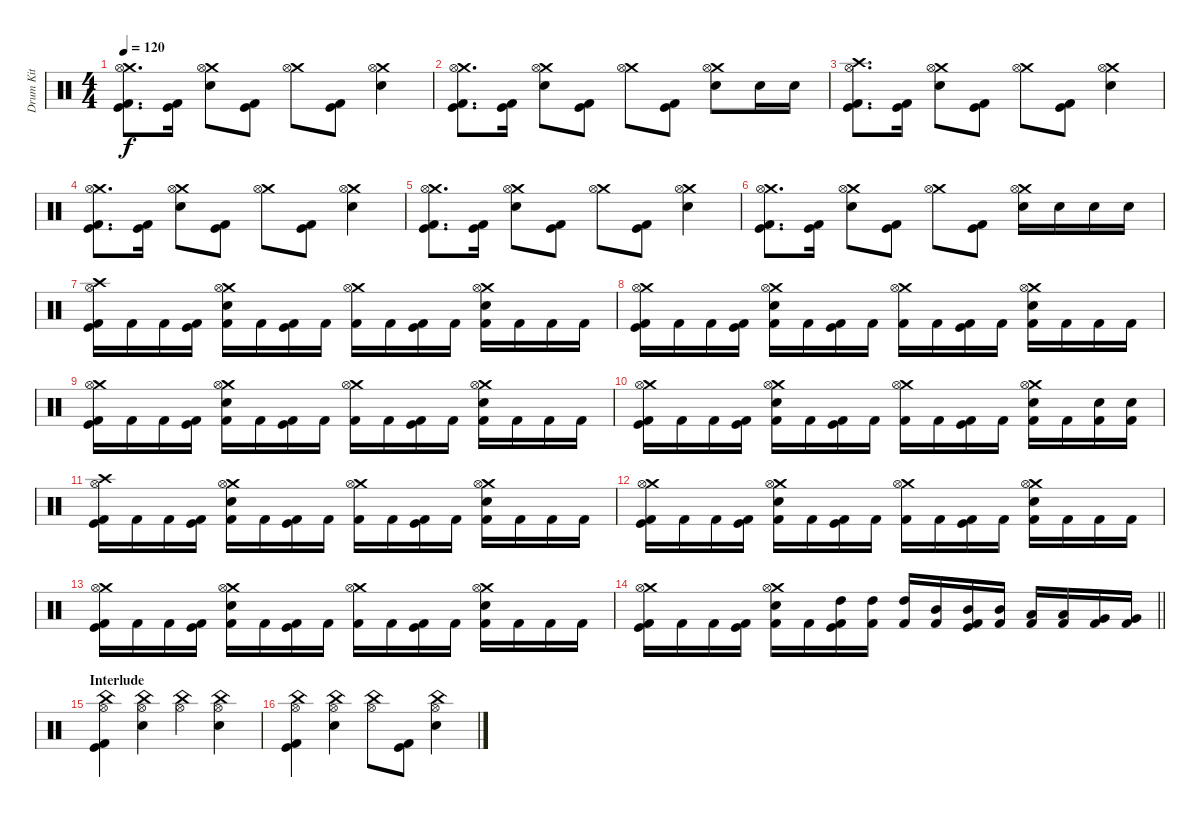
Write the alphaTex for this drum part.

\track ("Drum Kit" "Drum Kit") {instrument percussion}
\staff {score}
\articulation defaults
\ts (4 4)
\tempo 120
\clef neutral
\ks c
("Crash medium (hit)" "Hi-Hat (open)" "Kick (hit)" "Kick (hit) 2").8{d dy f} ("Kick (hit)" "Kick (hit) 2").16 ("Crash medium (hit)" "Hi-Hat (open)" "Electric Snare (hit)").8 ("Kick (hit)" "Kick (hit) 2").8 ("Crash medium (hit)" "Hi-Hat (open)").8 ("Kick (hit)" "Kick (hit) 2").8 ("Crash medium (hit)" "Hi-Hat (open)" "Electric Snare (hit)").4 |
("Crash medium (hit)" "Hi-Hat (open)" "Kick (hit)" "Kick (hit) 2").8{d} ("Kick (hit)" "Kick (hit) 2").16 ("Crash medium (hit)" "Hi-Hat (open)" "Electric Snare (hit)").8 ("Kick (hit)" "Kick (hit) 2").8 ("Crash medium (hit)" "Hi-Hat (open)").8 ("Kick (hit)" "Kick (hit) 2").8 ("Crash medium (hit)" "Hi-Hat (open)" "Electric Snare (hit)").8 "Electric Snare (hit)".16 "Electric Snare (hit)".16 |
("Crash high (hit)" "Hi-Hat (open)" "Kick (hit)" "Kick (hit) 2").8{d} ("Kick (hit)" "Kick (hit) 2").16 ("Crash medium (hit)" "Hi-Hat (open)" "Electric Snare (hit)").8 ("Kick (hit)" "Kick (hit) 2").8 ("Crash medium (hit)" "Hi-Hat (open)").8 ("Kick (hit)" "Kick (hit) 2").8 ("Crash medium (hit)" "Hi-Hat (open)" "Electric Snare (hit)").4 |
("Crash medium (hit)" "Hi-Hat (open)" "Kick (hit)" "Kick (hit) 2").8{d} ("Kick (hit)" "Kick (hit) 2").16 ("Crash medium (hit)" "Hi-Hat (open)" "Electric Snare (hit)").8 ("Kick (hit)" "Kick (hit) 2").8 ("Crash medium (hit)" "Hi-Hat (open)").8 ("Kick (hit)" "Kick (hit) 2").8 ("Crash medium (hit)" "Hi-Hat (open)" "Electric Snare (hit)").4 |
("Crash medium (hit)" "Hi-Hat (open)" "Kick (hit)" "Kick (hit) 2").8{d} ("Kick (hit)" "Kick (hit) 2").16 ("Crash medium (hit)" "Hi-Hat (open)" "Electric Snare (hit)").8 ("Kick (hit)" "Kick (hit) 2").8 ("Crash medium (hit)" "Hi-Hat (open)").8 ("Kick (hit)" "Kick (hit) 2").8 ("Crash medium (hit)" "Hi-Hat (open)" "Electric Snare (hit)").4 |
("Crash medium (hit)" "Hi-Hat (open)" "Kick (hit)" "Kick (hit) 2").8{d} ("Kick (hit)" "Kick (hit) 2").16 ("Crash medium (hit)" "Hi-Hat (open)" "Electric Snare (hit)").8 ("Kick (hit)" "Kick (hit) 2").8 ("Crash medium (hit)" "Hi-Hat (open)").8 ("Kick (hit)" "Kick (hit) 2").8 ("Crash medium (hit)" "Hi-Hat (open)" "Electric Snare (hit)").16 "Electric Snare (hit)".16 "Electric Snare (hit)".16 "Electric Snare (hit)".16 |
("Crash high (hit)" "Hi-Hat (open)" "Kick (hit)" "Kick (hit) 2").16 "Kick (hit) 2".16 "Kick (hit) 2".16 ("Kick (hit)" "Kick (hit) 2").16 ("Crash medium (hit)" "Hi-Hat (open)" "Electric Snare (hit)" "Kick (hit) 2").16 "Kick (hit) 2".16 ("Kick (hit)" "Kick (hit) 2").16 "Kick (hit) 2".16 ("Crash medium (hit)" "Hi-Hat (open)" "Kick (hit) 2").16 "Kick (hit) 2".16 ("Kick (hit)" "Kick (hit) 2").16 "Kick (hit) 2".16 ("Crash medium (hit)" "Hi-Hat (open)" "Electric Snare (hit)" "Kick (hit) 2").16 "Kick (hit) 2".16 "Kick (hit) 2".16 "Kick (hit) 2".16 |
("Crash medium (hit)" "Hi-Hat (open)" "Kick (hit)" "Kick (hit) 2").16 "Kick (hit) 2".16 "Kick (hit) 2".16 ("Kick (hit)" "Kick (hit) 2").16 ("Crash medium (hit)" "Hi-Hat (open)" "Electric Snare (hit)" "Kick (hit) 2").16 "Kick (hit) 2".16 ("Kick (hit)" "Kick (hit) 2").16 "Kick (hit) 2".16 ("Crash medium (hit)" "Hi-Hat (open)" "Kick (hit) 2").16 "Kick (hit) 2".16 ("Kick (hit)" "Kick (hit) 2").16 "Kick (hit) 2".16 ("Crash medium (hit)" "Hi-Hat (open)" "Electric Snare (hit)" "Kick (hit) 2").16 "Kick (hit) 2".16 "Kick (hit) 2".16 "Kick (hit) 2".16 |
("Crash medium (hit)" "Hi-Hat (open)" "Kick (hit)" "Kick (hit) 2").16 "Kick (hit) 2".16 "Kick (hit) 2".16 ("Kick (hit)" "Kick (hit) 2").16 ("Crash medium (hit)" "Hi-Hat (open)" "Electric Snare (hit)" "Kick (hit) 2").16 "Kick (hit) 2".16 ("Kick (hit)" "Kick (hit) 2").16 "Kick (hit) 2".16 ("Crash medium (hit)" "Hi-Hat (open)" "Kick (hit) 2").16 "Kick (hit) 2".16 ("Kick (hit)" "Kick (hit) 2").16 "Kick (hit) 2".16 ("Crash medium (hit)" "Hi-Hat (open)" "Electric Snare (hit)" "Kick (hit) 2").16 "Kick (hit) 2".16 "Kick (hit) 2".16 "Kick (hit) 2".16 |
("Crash medium (hit)" "Hi-Hat (open)" "Kick (hit)" "Kick (hit) 2").16 "Kick (hit) 2".16 "Kick (hit) 2".16 ("Kick (hit)" "Kick (hit) 2").16 ("Crash medium (hit)" "Hi-Hat (open)" "Electric Snare (hit)" "Kick (hit) 2").16 "Kick (hit) 2".16 ("Kick (hit)" "Kick (hit) 2").16 "Kick (hit) 2".16 ("Crash medium (hit)" "Hi-Hat (open)" "Kick (hit) 2").16 "Kick (hit) 2".16 ("Kick (hit)" "Kick (hit) 2").16 "Kick (hit) 2".16 ("Crash medium (hit)" "Hi-Hat (open)" "Electric Snare (hit)" "Kick (hit) 2").16 "Kick (hit) 2".16 ("Electric Snare (hit)" "Kick (hit) 2").16 ("Electric Snare (hit)" "Kick (hit) 2").16 |
("Crash high (hit)" "Hi-Hat (open)" "Kick (hit)" "Kick (hit) 2").16 "Kick (hit) 2".16 "Kick (hit) 2".16 ("Kick (hit)" "Kick (hit) 2").16 ("Crash medium (hit)" "Hi-Hat (open)" "Electric Snare (hit)" "Kick (hit) 2").16 "Kick (hit) 2".16 ("Kick (hit)" "Kick (hit) 2").16 "Kick (hit) 2".16 ("Crash medium (hit)" "Hi-Hat (open)" "Kick (hit) 2").16 "Kick (hit) 2".16 ("Kick (hit)" "Kick (hit) 2").16 "Kick (hit) 2".16 ("Crash medium (hit)" "Hi-Hat (open)" "Electric Snare (hit)" "Kick (hit) 2").16 "Kick (hit) 2".16 "Kick (hit) 2".16 "Kick (hit) 2".16 |
("Crash medium (hit)" "Hi-Hat (open)" "Kick (hit)" "Kick (hit) 2").16 "Kick (hit) 2".16 "Kick (hit) 2".16 ("Kick (hit)" "Kick (hit) 2").16 ("Crash medium (hit)" "Hi-Hat (open)" "Electric Snare (hit)" "Kick (hit) 2").16 "Kick (hit) 2".16 ("Kick (hit)" "Kick (hit) 2").16 "Kick (hit) 2".16 ("Crash medium (hit)" "Hi-Hat (open)" "Kick (hit) 2").16 "Kick (hit) 2".16 ("Kick (hit)" "Kick (hit) 2").16 "Kick (hit) 2".16 ("Crash medium (hit)" "Hi-Hat (open)" "Electric Snare (hit)" "Kick (hit) 2").16 "Kick (hit) 2".16 "Kick (hit) 2".16 "Kick (hit) 2".16 |
("Crash medium (hit)" "Hi-Hat (open)" "Kick (hit)" "Kick (hit) 2").16 "Kick (hit) 2".16 "Kick (hit) 2".16 ("Kick (hit)" "Kick (hit) 2").16 ("Crash medium (hit)" "Hi-Hat (open)" "Electric Snare (hit)" "Kick (hit) 2").16 "Kick (hit) 2".16 ("Kick (hit)" "Kick (hit) 2").16 "Kick (hit) 2".16 ("Crash medium (hit)" "Hi-Hat (open)" "Kick (hit) 2").16 "Kick (hit) 2".16 ("Kick (hit)" "Kick (hit) 2").16 "Kick (hit) 2".16 ("Crash medium (hit)" "Hi-Hat (open)" "Electric Snare (hit)" "Kick (hit) 2").16 "Kick (hit) 2".16 "Kick (hit) 2".16 "Kick (hit) 2".16 |
\barLineRight lightlight
("Crash medium (hit)" "Hi-Hat (open)" "Kick (hit)" "Kick (hit) 2").16 "Kick (hit) 2".16 "Kick (hit) 2".16 ("Kick (hit)" "Kick (hit) 2").16 ("Crash medium (hit)" "Hi-Hat (open)" "Electric Snare (hit)" "Kick (hit) 2").16 "Kick (hit) 2".16 ("High Tom (hit)" "Kick (hit)" "Kick (hit) 2").16 ("High Tom (hit)" "Kick (hit) 2").16 ("High Tom (hit)" "Kick (hit) 2").16 ("Mid Tom (hit)" "Kick (hit) 2").16 ("Mid Tom (hit)" "Kick (hit)" "Kick (hit) 2").16 ("Mid Tom (hit)" "Kick (hit) 2").16 ("Low Tom (hit)" "Kick (hit) 2").16 ("Low Tom (hit)" "Kick (hit) 2").16 ("Very Low Tom (hit)" "Kick (hit) 2").16 ("Very Low Tom (hit)" "Kick (hit) 2").16 |
\section ("" "Interlude")
("China (hit)" "Hi-Hat (open)" "Kick (hit)" "Kick (hit) 2").4 ("China (hit)" "Hi-Hat (open)" "Electric Snare (hit)").4 ("China (hit)" "Hi-Hat (open)").4 ("China (hit)" "Hi-Hat (open)" "Electric Snare (hit)").4 |
("China (hit)" "Hi-Hat (open)" "Kick (hit)" "Kick (hit) 2").4 ("China (hit)" "Hi-Hat (open)" "Electric Snare (hit)").4 ("China (hit)" "Hi-Hat (open)").8 ("Kick (hit)" "Kick (hit) 2").8 ("China (hit)" "Hi-Hat (open)" "Electric Snare (hit)").4
